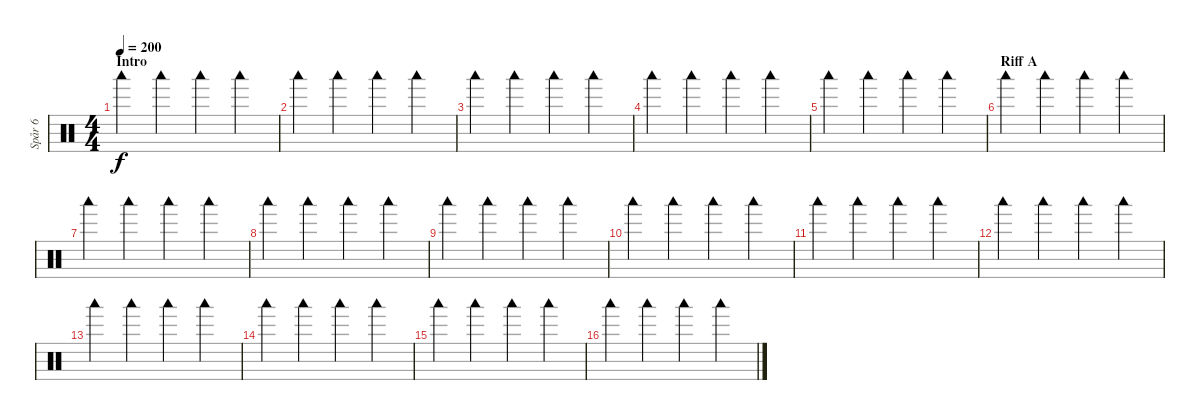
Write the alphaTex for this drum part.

\track ("Spår 6" "Spår 6") {instrument percussion}
\staff {score}
\articulation defaults
\ts (4 4)
\section ("" "Intro")
\tempo 200
\clef neutral
\ks c "Woodblock low (hit)".4{dy f} "Woodblock low (hit)".4 "Woodblock low (hit)".4 "Woodblock low (hit)".4
|
"Woodblock low (hit)".4 "Woodblock low (hit)".4 "Woodblock low (hit)".4 "Woodblock low (hit)".4 |
"Woodblock low (hit)".4 "Woodblock low (hit)".4 "Woodblock low (hit)".4 "Woodblock low (hit)".4 |
"Woodblock low (hit)".4 "Woodblock low (hit)".4 "Woodblock low (hit)".4 "Woodblock low (hit)".4 |
"Woodblock low (hit)".4 "Woodblock low (hit)".4 "Woodblock low (hit)".4 "Woodblock low (hit)".4 |
\section ("" "Riff A")
"Woodblock low (hit)".4 "Woodblock low (hit)".4 "Woodblock low (hit)".4 "Woodblock low (hit)".4 |
"Woodblock low (hit)".4 "Woodblock low (hit)".4 "Woodblock low (hit)".4 "Woodblock low (hit)".4 |
"Woodblock low (hit)".4 "Woodblock low (hit)".4 "Woodblock low (hit)".4 "Woodblock low (hit)".4 |
"Woodblock low (hit)".4 "Woodblock low (hit)".4 "Woodblock low (hit)".4 "Woodblock low (hit)".4 |
"Woodblock low (hit)".4 "Woodblock low (hit)".4 "Woodblock low (hit)".4 "Woodblock low (hit)".4 |
"Woodblock low (hit)".4 "Woodblock low (hit)".4 "Woodblock low (hit)".4 "Woodblock low (hit)".4 |
"Woodblock low (hit)".4 "Woodblock low (hit)".4 "Woodblock low (hit)".4 "Woodblock low (hit)".4 |
"Woodblock low (hit)".4 "Woodblock low (hit)".4 "Woodblock low (hit)".4 "Woodblock low (hit)".4 |
"Woodblock low (hit)".4 "Woodblock low (hit)".4 "Woodblock low (hit)".4 "Woodblock low (hit)".4 |
"Woodblock low (hit)".4 "Woodblock low (hit)".4 "Woodblock low (hit)".4 "Woodblock low (hit)".4 |
"Woodblock low (hit)".4 "Woodblock low (hit)".4 "Woodblock low (hit)".4 "Woodblock low (hit)".4
